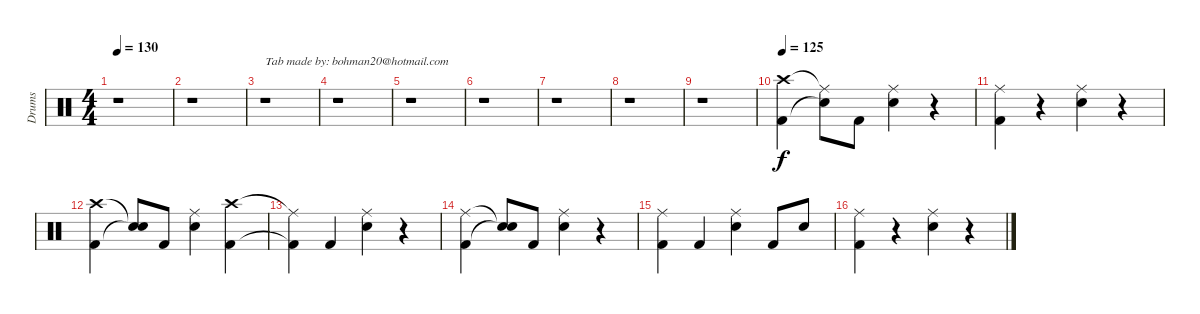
\track ("Drums" "Drums") {instrument percussion}
\staff {score}
\articulation defaults
\ts (4 4)
\tempo 130
\clef neutral
\ks c
r.1{dy f} |
r.1 |
r.1{txt "Tab made by: bohman20@hotmail.com"} |
r.1 |
r.1 |
r.1 |
r.1 |
r.1 |
r.1 |
\tempo 125
("Crash high (hit)" "Kick (hit) 2").4 ("Ride (middle)"{t} "Snare (hit)"{t}).8 "Kick (hit) 2".8 ("Ride (middle)" "Electric Snare (hit)").4 r.4 |
("Ride (middle)" "Kick (hit) 2").4 r.4 ("Ride (middle)" "Electric Snare (hit)").4 r.4 |
("Crash high (hit)" "Kick (hit) 2").4 ("Snare (hit)"{t} "Snare (hit)"{t}).8 "Kick (hit) 2".8 ("Ride (middle)" "Electric Snare (hit)").4 ("Crash high (hit)" "Kick (hit) 2").4 |
("Ride (middle)"{t} "Kick (hit) 2"{t}).4 "Kick (hit) 2".4 ("Ride (middle)" "Electric Snare (hit)").4 r.4 |
("Ride (middle)" "Kick (hit) 2").4 ("Snare (hit)"{t} "Snare (hit)"{t}).8 "Kick (hit) 2".8 ("Ride (middle)" "Electric Snare (hit)").4 r.4 |
("Ride (middle)" "Kick (hit) 2").4 "Kick (hit) 2".4 ("Ride (middle)" "Electric Snare (hit)").4 "Kick (hit) 2".8 "Electric Snare (hit)".8 |
("Ride (middle)" "Kick (hit) 2").4 r.4 ("Ride (middle)" "Electric Snare (hit)").4 r.4
